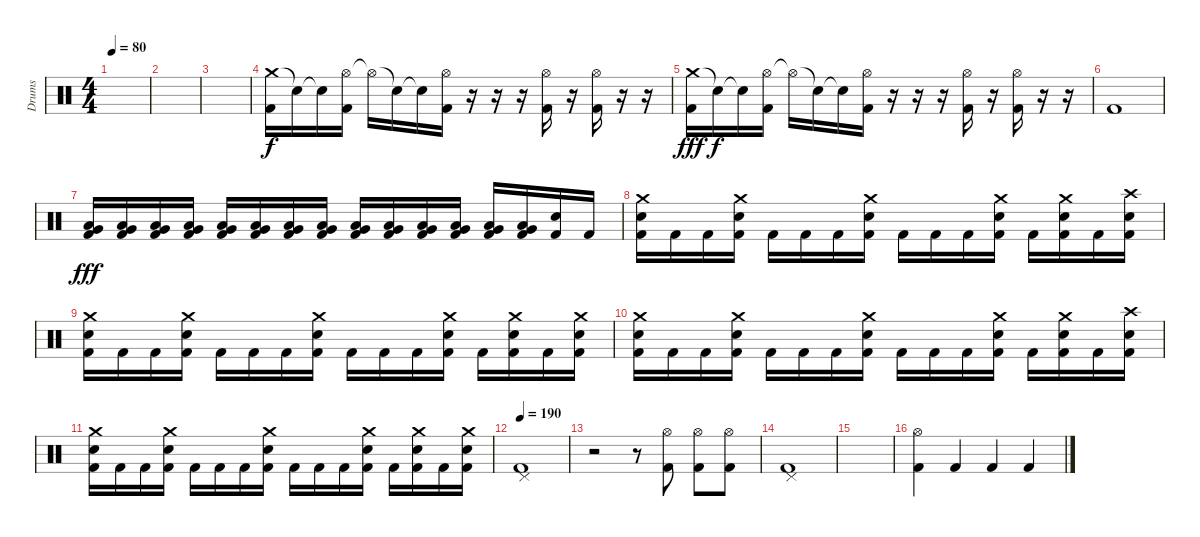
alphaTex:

\track ("Drums" "Drums") {instrument percussion}
\staff {score}
\articulation defaults
\ts (4 4)
\tempo 80
\clef neutral
\ks c
|
|
|
("Crash medium (hit)" "Kick (hit) 2").16 "Snare (hit)"{t}.16{dy f} "Snare (hit)"{t}.16 ("Hi-Hat (open)" "Kick (hit) 2").16 "Hi-Hat (open)"{t}.16 "Snare (hit)"{t}.16 "Snare (hit)"{t}.16 ("Hi-Hat (open)" "Kick (hit) 2").16 r.16 r.16 r.16 ("Hi-Hat (open)" "Kick (hit) 2").16 r.16 ("Hi-Hat (open)" "Kick (hit) 2").16 r.16 r.16 |
("Crash medium (hit)" "Kick (hit) 2").16{dy fff} "Snare (hit)"{t}.16{dy f} "Snare (hit)"{t}.16 ("Hi-Hat (open)" "Kick (hit) 2").16 "Hi-Hat (open)"{t}.16 "Snare (hit)"{t}.16 "Snare (hit)"{t}.16 ("Hi-Hat (open)" "Kick (hit) 2").16 r.16 r.16 r.16 ("Hi-Hat (open)" "Kick (hit) 2").16 r.16 ("Hi-Hat (open)" "Kick (hit) 2").16 r.16 r.16 |
"Kick (hit) 2".1 |
("Low Tom (hit)" "Very Low Tom (hit)" "Kick (hit) 2").16{dy fff} ("Low Tom (hit)" "Very Low Tom (hit)" "Kick (hit) 2").16 ("Low Tom (hit)" "Very Low Tom (hit)" "Kick (hit) 2").16 ("Low Tom (hit)" "Very Low Tom (hit)" "Kick (hit) 2").16 ("Low Tom (hit)" "Very Low Tom (hit)" "Kick (hit) 2").16 ("Low Tom (hit)" "Very Low Tom (hit)" "Kick (hit) 2").16 ("Low Tom (hit)" "Very Low Tom (hit)" "Kick (hit) 2").16 ("Low Tom (hit)" "Very Low Tom (hit)" "Kick (hit) 2").16 ("Low Tom (hit)" "Very Low Tom (hit)" "Kick (hit) 2").16 ("Low Tom (hit)" "Very Low Tom (hit)" "Kick (hit) 2").16 ("Low Tom (hit)" "Very Low Tom (hit)" "Kick (hit) 2").16 ("Low Tom (hit)" "Very Low Tom (hit)" "Kick (hit) 2").16 ("Low Tom (hit)" "Very Low Tom (hit)" "Kick (hit) 2").16 ("Low Tom (hit)" "Very Low Tom (hit)" "Kick (hit) 2").16 ("Electric Snare (hit)" "Kick (hit) 2").16 "Kick (hit) 2".16 |
("Crash medium (hit)" "Electric Snare (hit)" "Kick (hit) 2").16 "Kick (hit) 2".16 "Kick (hit) 2".16 ("Crash medium (hit)" "Electric Snare (hit)" "Kick (hit) 2").16 "Kick (hit) 2".16 "Kick (hit) 2".16 "Kick (hit) 2".16 ("Crash medium (hit)" "Electric Snare (hit)" "Kick (hit) 2").16 "Kick (hit) 2".16 "Kick (hit) 2".16 "Kick (hit) 2".16 ("Crash medium (hit)" "Electric Snare (hit)" "Kick (hit) 2").16 "Kick (hit) 2".16 ("Crash medium (hit)" "Electric Snare (hit)" "Kick (hit) 2").16 "Kick (hit) 2".16 ("Crash high (hit)" "Electric Snare (hit)" "Kick (hit) 2").16 |
("Crash medium (hit)" "Electric Snare (hit)" "Kick (hit) 2").16 "Kick (hit) 2".16 "Kick (hit) 2".16 ("Crash medium (hit)" "Electric Snare (hit)" "Kick (hit) 2").16 "Kick (hit) 2".16 "Kick (hit) 2".16 "Kick (hit) 2".16 ("Crash medium (hit)" "Electric Snare (hit)" "Kick (hit) 2").16 "Kick (hit) 2".16 "Kick (hit) 2".16 "Kick (hit) 2".16 ("Crash medium (hit)" "Electric Snare (hit)" "Kick (hit) 2").16 "Kick (hit) 2".16 ("Crash medium (hit)" "Electric Snare (hit)" "Kick (hit) 2").16 "Kick (hit) 2".16 ("Crash medium (hit)" "Electric Snare (hit)" "Kick (hit) 2").16 |
("Crash medium (hit)" "Electric Snare (hit)" "Kick (hit) 2").16 "Kick (hit) 2".16 "Kick (hit) 2".16 ("Crash medium (hit)" "Electric Snare (hit)" "Kick (hit) 2").16 "Kick (hit) 2".16 "Kick (hit) 2".16 "Kick (hit) 2".16 ("Crash medium (hit)" "Electric Snare (hit)" "Kick (hit) 2").16 "Kick (hit) 2".16 "Kick (hit) 2".16 "Kick (hit) 2".16 ("Crash medium (hit)" "Electric Snare (hit)" "Kick (hit) 2").16 "Kick (hit) 2".16 ("Crash medium (hit)" "Electric Snare (hit)" "Kick (hit) 2").16 "Kick (hit) 2".16 ("Crash high (hit)" "Electric Snare (hit)" "Kick (hit) 2").16 |
("Crash medium (hit)" "Electric Snare (hit)" "Kick (hit) 2").16 "Kick (hit) 2".16 "Kick (hit) 2".16 ("Crash medium (hit)" "Electric Snare (hit)" "Kick (hit) 2").16 "Kick (hit) 2".16 "Kick (hit) 2".16 "Kick (hit) 2".16 ("Crash medium (hit)" "Electric Snare (hit)" "Kick (hit) 2").16 "Kick (hit) 2".16 "Kick (hit) 2".16 "Kick (hit) 2".16 ("Crash medium (hit)" "Electric Snare (hit)" "Kick (hit) 2").16 "Kick (hit) 2".16 ("Crash medium (hit)" "Electric Snare (hit)" "Kick (hit) 2").16 "Kick (hit) 2".16 ("Crash medium (hit)" "Electric Snare (hit)" "Kick (hit) 2").16 |
\tempo 190
("Pedal Hi-Hat (hit)" "Kick (hit) 2").1 |
r.2 r.8 ("Hi-Hat (open)" "Kick (hit) 2").8 ("Hi-Hat (open)" "Kick (hit) 2").8 ("Hi-Hat (open)" "Kick (hit) 2").8 |
("Pedal Hi-Hat (hit)" "Kick (hit) 2").1 |
|
("Hi-Hat (open)" "Kick (hit) 2").4 "Kick (hit) 2".4 "Kick (hit) 2".4 "Kick (hit) 2".4
